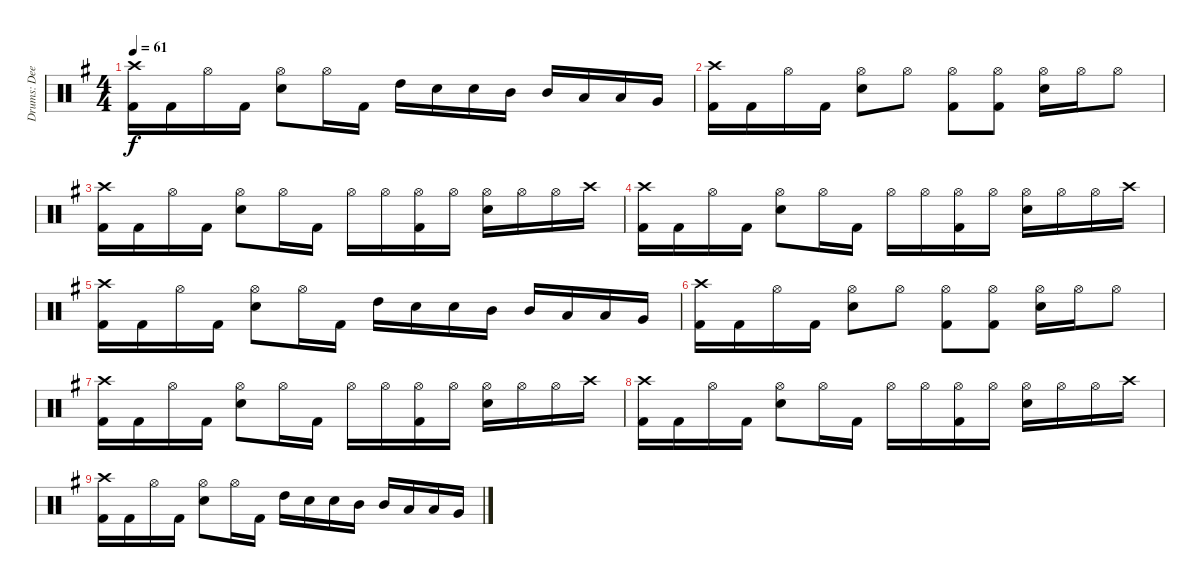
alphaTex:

\track ("Drums: Deen" "Drums: Dee") {instrument percussion}
\staff {score}
\articulation defaults
\ts (4 4)
\tempo 61
\clef neutral
\ks g
("Crash high (hit)" "Kick (hit) 2").16{dy f} "Kick (hit) 2".16 "Hi-Hat (open)".16 "Kick (hit) 2".16 ("Hi-Hat (open)" "Electric Snare (hit)").8 "Hi-Hat (open)".16 "Kick (hit) 2".16 "High Tom (hit)".16 "Electric Snare (hit)".16 "Electric Snare (hit)".16 "Mid Tom (hit)".16 "Mid Tom (hit)".16 "Low Tom (hit)".16 "Low Tom (hit)".16 "Very Low Tom (hit)".16 |
("Crash high (hit)" "Kick (hit) 2").16 "Kick (hit) 2".16 "Hi-Hat (open)".16 "Kick (hit) 2".16 ("Hi-Hat (open)" "Electric Snare (hit)").8 "Hi-Hat (open)".8 ("Hi-Hat (open)" "Kick (hit) 2").8 ("Hi-Hat (open)" "Kick (hit) 2").8 ("Hi-Hat (open)" "Electric Snare (hit)").16 "Hi-Hat (open)".16 "Hi-Hat (open)".8 |
("Crash high (hit)" "Kick (hit) 2").16 "Kick (hit) 2".16 "Hi-Hat (open)".16 "Kick (hit) 2".16 ("Hi-Hat (open)" "Electric Snare (hit)").8 "Hi-Hat (open)".16 "Kick (hit) 2".16 "Hi-Hat (open)".16 "Hi-Hat (open)".16 ("Hi-Hat (open)" "Kick (hit) 2").16 "Hi-Hat (open)".16 ("Hi-Hat (open)" "Electric Snare (hit)").16 "Hi-Hat (open)".16 "Hi-Hat (open)".16 "Crash high (hit)".16 |
("Crash high (hit)" "Kick (hit) 2").16 "Kick (hit) 2".16 "Hi-Hat (open)".16 "Kick (hit) 2".16 ("Hi-Hat (open)" "Electric Snare (hit)").8 "Hi-Hat (open)".16 "Kick (hit) 2".16 "Hi-Hat (open)".16 "Hi-Hat (open)".16 ("Hi-Hat (open)" "Kick (hit) 2").16 "Hi-Hat (open)".16 ("Hi-Hat (open)" "Electric Snare (hit)").16 "Hi-Hat (open)".16 "Hi-Hat (open)".16 "Crash high (hit)".16 |
("Crash high (hit)" "Kick (hit) 2").16 "Kick (hit) 2".16 "Hi-Hat (open)".16 "Kick (hit) 2".16 ("Hi-Hat (open)" "Electric Snare (hit)").8 "Hi-Hat (open)".16 "Kick (hit) 2".16 "High Tom (hit)".16 "Electric Snare (hit)".16 "Electric Snare (hit)".16 "Mid Tom (hit)".16 "Mid Tom (hit)".16 "Low Tom (hit)".16 "Low Tom (hit)".16 "Very Low Tom (hit)".16 |
("Crash high (hit)" "Kick (hit) 2").16 "Kick (hit) 2".16 "Hi-Hat (open)".16 "Kick (hit) 2".16 ("Hi-Hat (open)" "Electric Snare (hit)").8 "Hi-Hat (open)".8 ("Hi-Hat (open)" "Kick (hit) 2").8 ("Hi-Hat (open)" "Kick (hit) 2").8 ("Hi-Hat (open)" "Electric Snare (hit)").16 "Hi-Hat (open)".16 "Hi-Hat (open)".8 |
("Crash high (hit)" "Kick (hit) 2").16 "Kick (hit) 2".16 "Hi-Hat (open)".16 "Kick (hit) 2".16 ("Hi-Hat (open)" "Electric Snare (hit)").8 "Hi-Hat (open)".16 "Kick (hit) 2".16 "Hi-Hat (open)".16 "Hi-Hat (open)".16 ("Hi-Hat (open)" "Kick (hit) 2").16 "Hi-Hat (open)".16 ("Hi-Hat (open)" "Electric Snare (hit)").16 "Hi-Hat (open)".16 "Hi-Hat (open)".16 "Crash high (hit)".16 |
("Crash high (hit)" "Kick (hit) 2").16 "Kick (hit) 2".16 "Hi-Hat (open)".16 "Kick (hit) 2".16 ("Hi-Hat (open)" "Electric Snare (hit)").8 "Hi-Hat (open)".16 "Kick (hit) 2".16 "Hi-Hat (open)".16 "Hi-Hat (open)".16 ("Hi-Hat (open)" "Kick (hit) 2").16 "Hi-Hat (open)".16 ("Hi-Hat (open)" "Electric Snare (hit)").16 "Hi-Hat (open)".16 "Hi-Hat (open)".16 "Crash high (hit)".16 |
("Crash high (hit)" "Kick (hit) 2").16 "Kick (hit) 2".16 "Hi-Hat (open)".16 "Kick (hit) 2".16 ("Hi-Hat (open)" "Electric Snare (hit)").8 "Hi-Hat (open)".16 "Kick (hit) 2".16 "High Tom (hit)".16 "Electric Snare (hit)".16 "Electric Snare (hit)".16 "Mid Tom (hit)".16 "Mid Tom (hit)".16 "Low Tom (hit)".16 "Low Tom (hit)".16 "Very Low Tom (hit)".16
